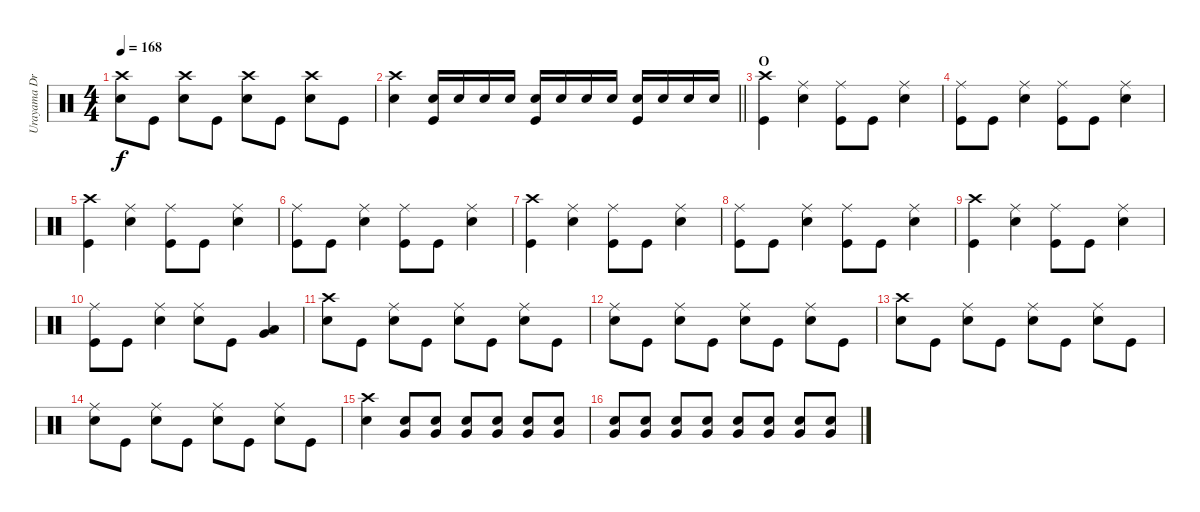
\track ("Urayama Drums" "Urayama Dr") {instrument percussion}
\staff {score}
\articulation defaults
\ts (4 4)
\tempo 168
\clef neutral
\ks c
("Crash high (hit)" "Electric Snare (hit)").8{dy f} "Kick (hit)".8 ("Crash high (hit)" "Electric Snare (hit)").8 "Kick (hit)".8 ("Crash high (hit)" "Electric Snare (hit)").8 "Kick (hit)".8 ("Crash high (hit)" "Electric Snare (hit)").8 "Kick (hit)".8 |
\barLineRight lightlight
("Crash high (hit)" "Electric Snare (hit)").4 ("Electric Snare (hit)" "Kick (hit)").16 "Electric Snare (hit)".16 "Electric Snare (hit)".16 "Electric Snare (hit)".16 ("Electric Snare (hit)" "Kick (hit)").16 "Electric Snare (hit)".16 "Electric Snare (hit)".16 "Electric Snare (hit)".16 ("Electric Snare (hit)" "Kick (hit)").16 "Electric Snare (hit)".16 "Electric Snare (hit)".16 "Electric Snare (hit)".16 |
\section ("" "O")
("Crash high (hit)" "Kick (hit)").4 ("Ride (middle)" "Electric Snare (hit)").4 ("Ride (middle)" "Kick (hit)").8 "Kick (hit)".8 ("Ride (middle)" "Electric Snare (hit)").4 |
("Ride (middle)" "Kick (hit)").8 "Kick (hit)".8 ("Ride (middle)" "Electric Snare (hit)").4 ("Ride (middle)" "Kick (hit)").8 "Kick (hit)".8 ("Ride (middle)" "Electric Snare (hit)").4 |
("Crash high (hit)" "Kick (hit)").4 ("Ride (middle)" "Electric Snare (hit)").4 ("Ride (middle)" "Kick (hit)").8 "Kick (hit)".8 ("Ride (middle)" "Electric Snare (hit)").4 |
("Ride (middle)" "Kick (hit)").8 "Kick (hit)".8 ("Ride (middle)" "Electric Snare (hit)").4 ("Ride (middle)" "Kick (hit)").8 "Kick (hit)".8 ("Ride (middle)" "Electric Snare (hit)").4 |
("Crash high (hit)" "Kick (hit)").4 ("Ride (middle)" "Electric Snare (hit)").4 ("Ride (middle)" "Kick (hit)").8 "Kick (hit)".8 ("Ride (middle)" "Electric Snare (hit)").4 |
("Ride (middle)" "Kick (hit)").8 "Kick (hit)".8 ("Ride (middle)" "Electric Snare (hit)").4 ("Ride (middle)" "Kick (hit)").8 "Kick (hit)".8 ("Ride (middle)" "Electric Snare (hit)").4 |
("Crash high (hit)" "Kick (hit)").4 ("Ride (middle)" "Electric Snare (hit)").4 ("Ride (middle)" "Kick (hit)").8 "Kick (hit)".8 ("Ride (middle)" "Electric Snare (hit)").4 |
("Ride (middle)" "Kick (hit)").8 "Kick (hit)".8 ("Ride (middle)" "Electric Snare (hit)").4 ("Ride (middle)" "Electric Snare (hit)").8 "Kick (hit)".8 ("Low Tom (hit)" "Very Low Tom (hit)").4 |
("Crash high (hit)" "Electric Snare (hit)").8 "Kick (hit)".8 ("Ride (middle)" "Electric Snare (hit)").8 "Kick (hit)".8 ("Ride (middle)" "Electric Snare (hit)").8 "Kick (hit)".8 ("Ride (middle)" "Electric Snare (hit)").8 "Kick (hit)".8 |
("Ride (middle)" "Electric Snare (hit)").8 "Kick (hit)".8 ("Ride (middle)" "Electric Snare (hit)").8 "Kick (hit)".8 ("Ride (middle)" "Electric Snare (hit)").8 "Kick (hit)".8 ("Ride (middle)" "Electric Snare (hit)").8 "Kick (hit)".8 |
("Crash high (hit)" "Electric Snare (hit)").8 "Kick (hit)".8 ("Ride (middle)" "Electric Snare (hit)").8 "Kick (hit)".8 ("Ride (middle)" "Electric Snare (hit)").8 "Kick (hit)".8 ("Ride (middle)" "Electric Snare (hit)").8 "Kick (hit)".8 |
("Ride (middle)" "Electric Snare (hit)").8 "Kick (hit)".8 ("Ride (middle)" "Electric Snare (hit)").8 "Kick (hit)".8 ("Ride (middle)" "Electric Snare (hit)").8 "Kick (hit)".8 ("Ride (middle)" "Electric Snare (hit)").8 "Kick (hit)".8 |
("Crash high (hit)" "Electric Snare (hit)").4 ("Electric Snare (hit)" "Very Low Tom (hit)").8 ("Electric Snare (hit)" "Very Low Tom (hit)").8 ("Electric Snare (hit)" "Very Low Tom (hit)").8 ("Electric Snare (hit)" "Very Low Tom (hit)").8 ("Electric Snare (hit)" "Very Low Tom (hit)").8 ("Electric Snare (hit)" "Very Low Tom (hit)").8 |
("Electric Snare (hit)" "Very Low Tom (hit)").8 ("Electric Snare (hit)" "Very Low Tom (hit)").8 ("Electric Snare (hit)" "Very Low Tom (hit)").8 ("Electric Snare (hit)" "Very Low Tom (hit)").8 ("Electric Snare (hit)" "Very Low Tom (hit)").8 ("Electric Snare (hit)" "Very Low Tom (hit)").8 ("Electric Snare (hit)" "Very Low Tom (hit)").8 ("Electric Snare (hit)" "Very Low Tom (hit)").8
